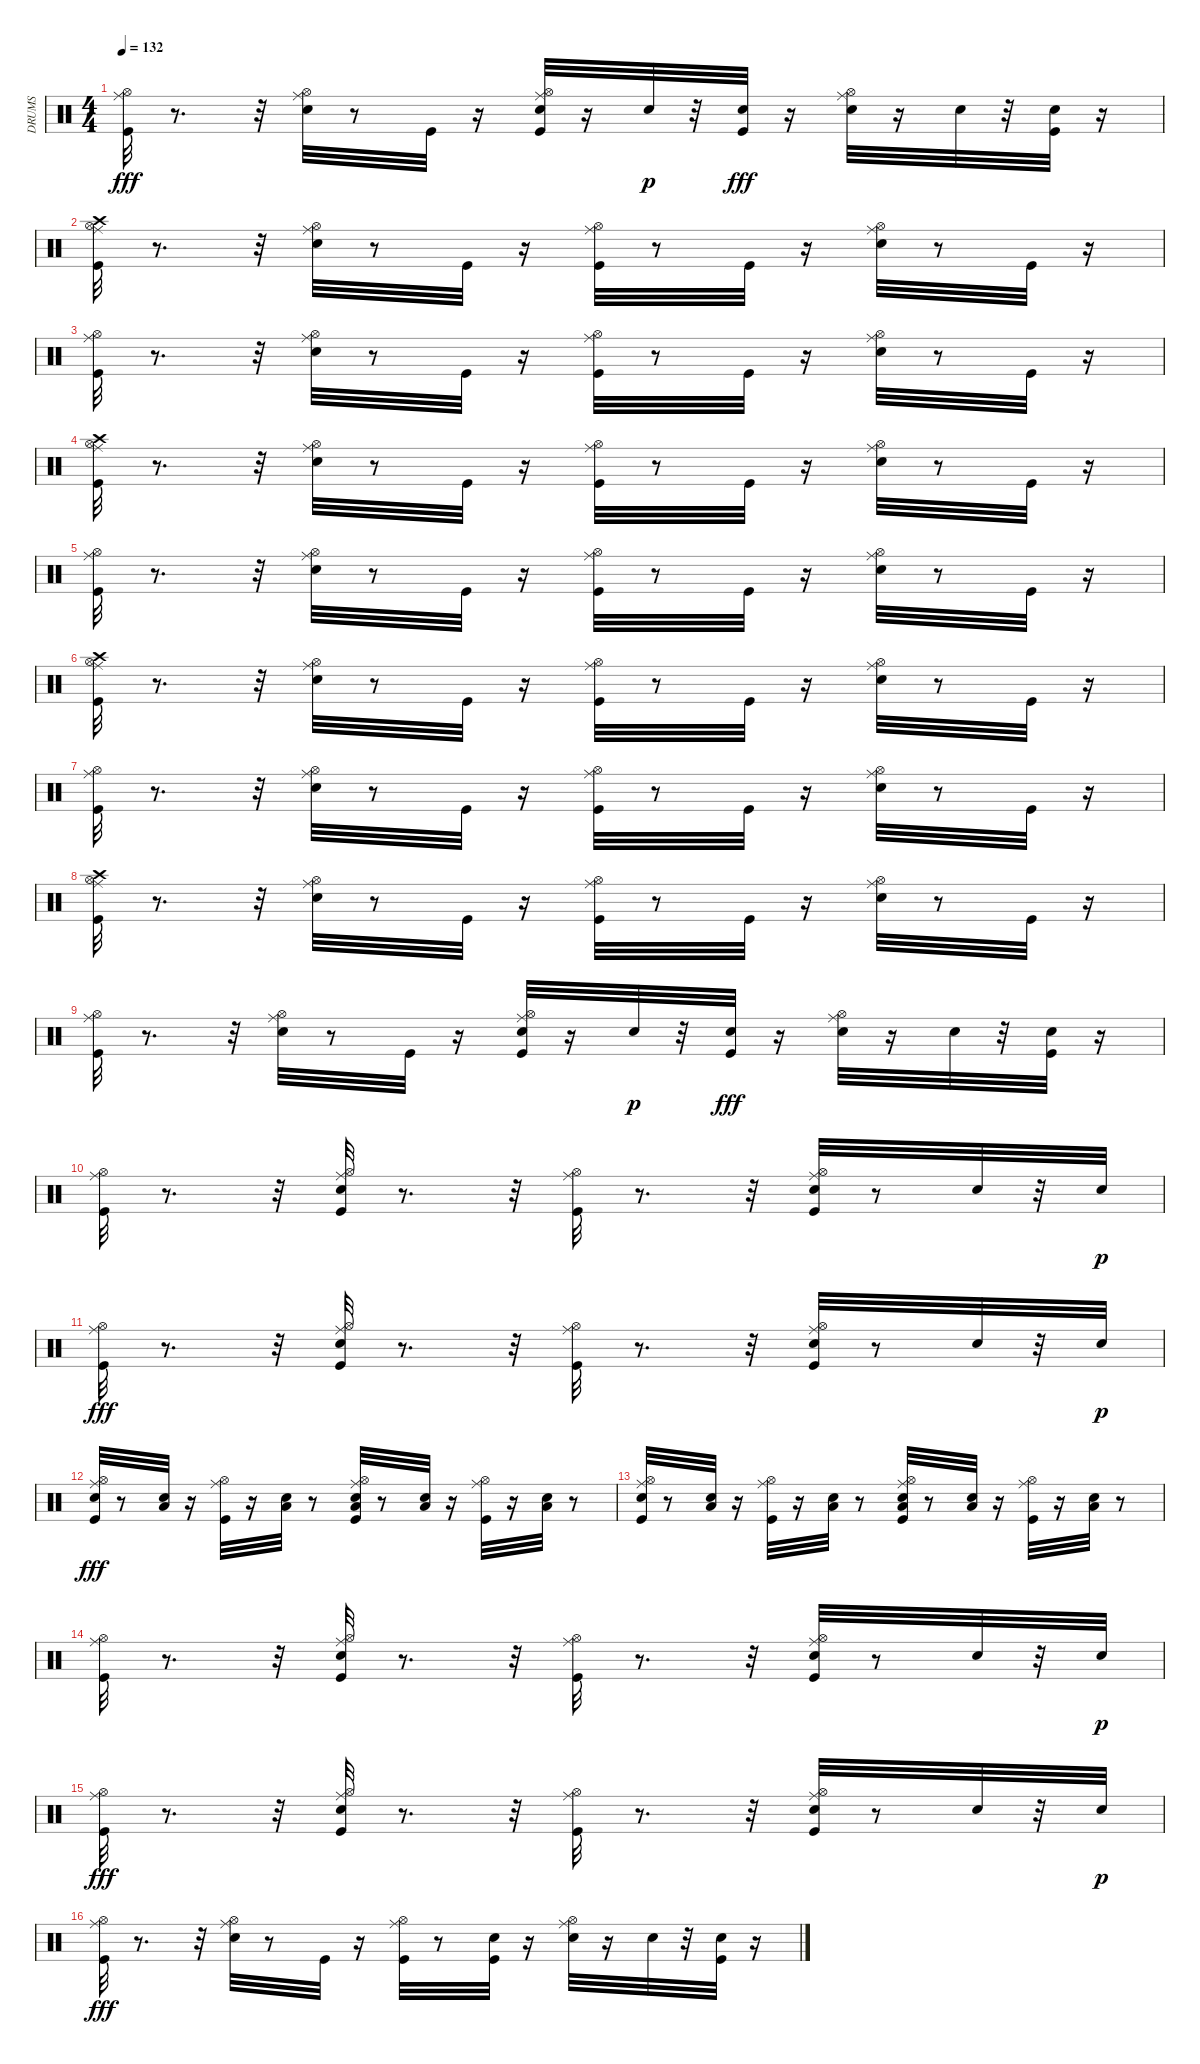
\track ("DRUMS" "DRUMS") {instrument percussion}
\staff {score}
\articulation defaults
\ts (4 4)
\tempo 132
\clef neutral
\ks c
("Kick (hit)" "Ride (middle)" "Hi-Hat (open)").32{dy fff} r.8{d} r.32 ("Snare (hit) 2" "Ride (middle)" "Hi-Hat (open)").32 r.8 "Kick (hit)".32 r.16 ("Snare (hit) 2" "Kick (hit)" "Ride (middle)" "Hi-Hat (open)").32 r.16 "Snare (hit) 2".32{dy p} r.32 ("Snare (hit) 2" "Kick (hit)").32{dy fff} r.16 ("Snare (hit) 2" "Ride (middle)" "Hi-Hat (open)").32 r.16 "Snare (hit) 2".32 r.32 ("Snare (hit) 2" "Kick (hit)").32 r.16 |
("Kick (hit)" "Crash high (hit)" "Ride (middle)" "Hi-Hat (open)").32 r.8{d} r.32 ("Snare (hit) 2" "Ride (middle)" "Hi-Hat (open)").32 r.8 "Kick (hit)".32 r.16 ("Kick (hit)" "Ride (middle)" "Hi-Hat (open)").32 r.8 "Kick (hit)".32 r.16 ("Snare (hit) 2" "Ride (middle)" "Hi-Hat (open)").32 r.8 "Kick (hit)".32 r.16 |
("Kick (hit)" "Ride (middle)" "Hi-Hat (open)").32 r.8{d} r.32 ("Snare (hit) 2" "Ride (middle)" "Hi-Hat (open)").32 r.8 "Kick (hit)".32 r.16 ("Kick (hit)" "Ride (middle)" "Hi-Hat (open)").32 r.8 "Kick (hit)".32 r.16 ("Snare (hit) 2" "Ride (middle)" "Hi-Hat (open)").32 r.8 "Kick (hit)".32 r.16 |
("Kick (hit)" "Crash high (hit)" "Ride (middle)" "Hi-Hat (open)").32 r.8{d} r.32 ("Snare (hit) 2" "Ride (middle)" "Hi-Hat (open)").32 r.8 "Kick (hit)".32 r.16 ("Kick (hit)" "Ride (middle)" "Hi-Hat (open)").32 r.8 "Kick (hit)".32 r.16 ("Snare (hit) 2" "Ride (middle)" "Hi-Hat (open)").32 r.8 "Kick (hit)".32 r.16 |
("Kick (hit)" "Ride (middle)" "Hi-Hat (open)").32 r.8{d} r.32 ("Snare (hit) 2" "Ride (middle)" "Hi-Hat (open)").32 r.8 "Kick (hit)".32 r.16 ("Kick (hit)" "Ride (middle)" "Hi-Hat (open)").32 r.8 "Kick (hit)".32 r.16 ("Snare (hit) 2" "Ride (middle)" "Hi-Hat (open)").32 r.8 "Kick (hit)".32 r.16 |
("Kick (hit)" "Crash high (hit)" "Ride (middle)" "Hi-Hat (open)").32 r.8{d} r.32 ("Snare (hit) 2" "Ride (middle)" "Hi-Hat (open)").32 r.8 "Kick (hit)".32 r.16 ("Kick (hit)" "Ride (middle)" "Hi-Hat (open)").32 r.8 "Kick (hit)".32 r.16 ("Snare (hit) 2" "Ride (middle)" "Hi-Hat (open)").32 r.8 "Kick (hit)".32 r.16 |
("Kick (hit)" "Ride (middle)" "Hi-Hat (open)").32 r.8{d} r.32 ("Snare (hit) 2" "Ride (middle)" "Hi-Hat (open)").32 r.8 "Kick (hit)".32 r.16 ("Kick (hit)" "Ride (middle)" "Hi-Hat (open)").32 r.8 "Kick (hit)".32 r.16 ("Snare (hit) 2" "Ride (middle)" "Hi-Hat (open)").32 r.8 "Kick (hit)".32 r.16 |
("Kick (hit)" "Crash high (hit)" "Ride (middle)" "Hi-Hat (open)").32 r.8{d} r.32 ("Snare (hit) 2" "Ride (middle)" "Hi-Hat (open)").32 r.8 "Kick (hit)".32 r.16 ("Kick (hit)" "Ride (middle)" "Hi-Hat (open)").32 r.8 "Kick (hit)".32 r.16 ("Snare (hit) 2" "Ride (middle)" "Hi-Hat (open)").32 r.8 "Kick (hit)".32 r.16 |
("Kick (hit)" "Ride (middle)" "Hi-Hat (open)").32 r.8{d} r.32 ("Snare (hit) 2" "Ride (middle)" "Hi-Hat (open)").32 r.8 "Kick (hit)".32 r.16 ("Snare (hit) 2" "Kick (hit)" "Ride (middle)" "Hi-Hat (open)").32 r.16 "Snare (hit) 2".32{dy p} r.32 ("Snare (hit) 2" "Kick (hit)").32{dy fff} r.16 ("Snare (hit) 2" "Ride (middle)" "Hi-Hat (open)").32 r.16 "Snare (hit) 2".32 r.32 ("Snare (hit) 2" "Kick (hit)").32 r.16 |
("Kick (hit)" "Ride (middle)" "Hi-Hat (open)").32 r.8{d} r.32 ("Snare (hit) 2" "Kick (hit)" "Ride (middle)" "Hi-Hat (open)").32 r.8{d} r.32 ("Kick (hit)" "Ride (middle)" "Hi-Hat (open)").32 r.8{d} r.32 ("Snare (hit) 2" "Kick (hit)" "Ride (middle)" "Hi-Hat (open)").32 r.8 "Snare (hit) 2".32 r.32 "Snare (hit) 2".32{dy p} |
("Kick (hit)" "Ride (middle)" "Hi-Hat (open)").32{dy fff} r.8{d} r.32 ("Snare (hit) 2" "Kick (hit)" "Ride (middle)" "Hi-Hat (open)").32 r.8{d} r.32 ("Kick (hit)" "Ride (middle)" "Hi-Hat (open)").32 r.8{d} r.32 ("Snare (hit) 2" "Kick (hit)" "Ride (middle)" "Hi-Hat (open)").32 r.8 "Snare (hit) 2".32 r.32 "Snare (hit) 2".32{dy p} |
("Snare (hit) 2" "Kick (hit)" "Ride (middle)" "Hi-Hat (open)").32{dy fff} r.8 ("Snare (hit) 2" "Low Tom (hit)").32 r.16 ("Kick (hit)" "Ride (middle)" "Hi-Hat (open)").32 r.16 ("Snare (hit) 2" "Low Tom (hit)").32 r.8 ("Snare (hit) 2" "Low Tom (hit)" "Kick (hit)" "Ride (middle)" "Hi-Hat (open)").32 r.8 ("Snare (hit) 2" "Low Tom (hit)").32 r.16 ("Kick (hit)" "Ride (middle)" "Hi-Hat (open)").32 r.16 ("Snare (hit) 2" "Low Tom (hit)").32 r.8 |
("Snare (hit) 2" "Kick (hit)" "Ride (middle)" "Hi-Hat (open)").32 r.8 ("Snare (hit) 2" "Low Tom (hit)").32 r.16 ("Kick (hit)" "Ride (middle)" "Hi-Hat (open)").32 r.16 ("Snare (hit) 2" "Low Tom (hit)").32 r.8 ("Snare (hit) 2" "Low Tom (hit)" "Kick (hit)" "Ride (middle)" "Hi-Hat (open)").32 r.8 ("Snare (hit) 2" "Low Tom (hit)").32 r.16 ("Kick (hit)" "Ride (middle)" "Hi-Hat (open)").32 r.16 ("Snare (hit) 2" "Low Tom (hit)").32 r.8 |
("Kick (hit)" "Ride (middle)" "Hi-Hat (open)").32 r.8{d} r.32 ("Snare (hit) 2" "Kick (hit)" "Ride (middle)" "Hi-Hat (open)").32 r.8{d} r.32 ("Kick (hit)" "Ride (middle)" "Hi-Hat (open)").32 r.8{d} r.32 ("Snare (hit) 2" "Kick (hit)" "Ride (middle)" "Hi-Hat (open)").32 r.8 "Snare (hit) 2".32 r.32 "Snare (hit) 2".32{dy p} |
("Kick (hit)" "Ride (middle)" "Hi-Hat (open)").32{dy fff} r.8{d} r.32 ("Snare (hit) 2" "Kick (hit)" "Ride (middle)" "Hi-Hat (open)").32 r.8{d} r.32 ("Kick (hit)" "Ride (middle)" "Hi-Hat (open)").32 r.8{d} r.32 ("Snare (hit) 2" "Kick (hit)" "Ride (middle)" "Hi-Hat (open)").32 r.8 "Snare (hit) 2".32 r.32 "Snare (hit) 2".32{dy p} |
("Kick (hit)" "Ride (middle)" "Hi-Hat (open)").32{dy fff} r.8{d} r.32 ("Snare (hit) 2" "Ride (middle)" "Hi-Hat (open)").32 r.8 "Kick (hit)".32 r.16 ("Kick (hit)" "Ride (middle)" "Hi-Hat (open)").32 r.8 ("Snare (hit) 2" "Kick (hit)").32 r.16 ("Snare (hit) 2" "Ride (middle)" "Hi-Hat (open)").32 r.16 "Snare (hit) 2".32 r.32 ("Snare (hit) 2" "Kick (hit)").32 r.16
